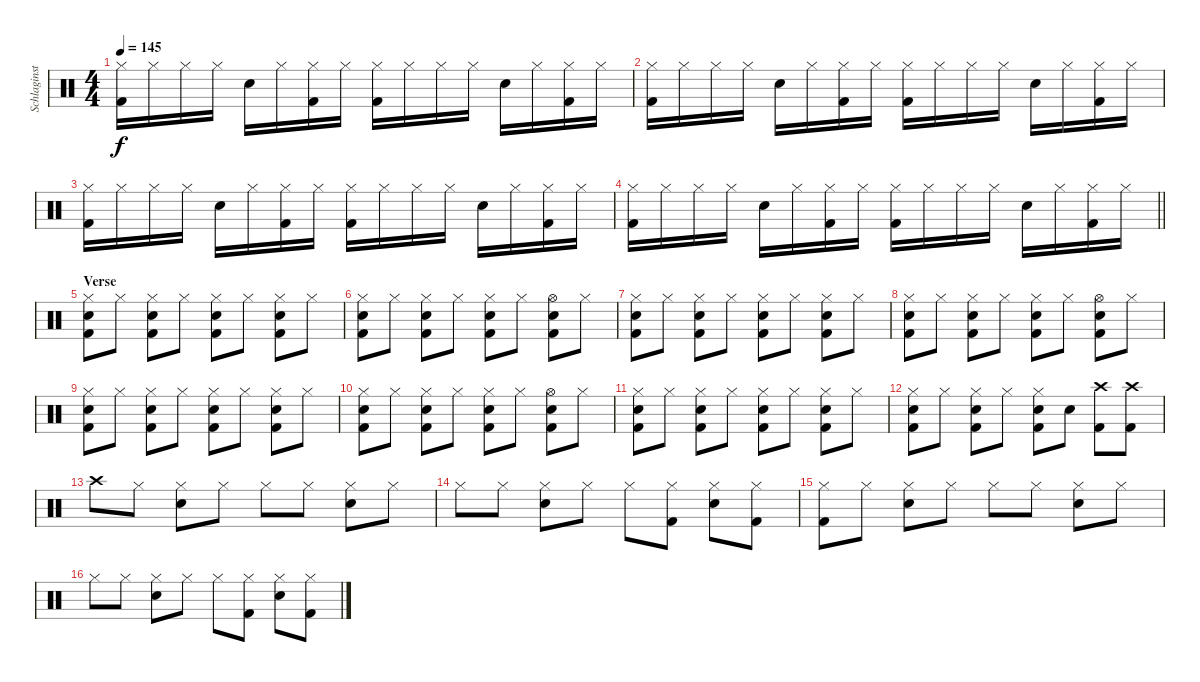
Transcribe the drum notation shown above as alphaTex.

\track ("Schlaginstrumente - Auswahl" "Schlaginst") {instrument percussion}
\staff {score}
\articulation defaults
\ts (4 4)
\tempo 145
\clef neutral
\ks c
("Hi-Hat (closed)" "Kick (hit) 2").16{dy f} "Hi-Hat (closed)".16 "Hi-Hat (closed)".16 "Hi-Hat (closed)".16 "Electric Snare (hit)".16 "Hi-Hat (closed)".16 ("Hi-Hat (closed)" "Kick (hit) 2").16 "Hi-Hat (closed)".16 ("Hi-Hat (closed)" "Kick (hit) 2").16 "Hi-Hat (closed)".16 "Hi-Hat (closed)".16 "Hi-Hat (closed)".16 "Electric Snare (hit)".16 "Hi-Hat (closed)".16 ("Hi-Hat (closed)" "Kick (hit) 2").16 "Hi-Hat (closed)".16 |
("Hi-Hat (closed)" "Kick (hit) 2").16 "Hi-Hat (closed)".16 "Hi-Hat (closed)".16 "Hi-Hat (closed)".16 "Electric Snare (hit)".16 "Hi-Hat (closed)".16 ("Hi-Hat (closed)" "Kick (hit) 2").16 "Hi-Hat (closed)".16 ("Hi-Hat (closed)" "Kick (hit) 2").16 "Hi-Hat (closed)".16 "Hi-Hat (closed)".16 "Hi-Hat (closed)".16 "Electric Snare (hit)".16 "Hi-Hat (closed)".16 ("Hi-Hat (closed)" "Kick (hit) 2").16 "Hi-Hat (closed)".16 |
("Hi-Hat (closed)" "Kick (hit) 2").16 "Hi-Hat (closed)".16 "Hi-Hat (closed)".16 "Hi-Hat (closed)".16 "Electric Snare (hit)".16 "Hi-Hat (closed)".16 ("Hi-Hat (closed)" "Kick (hit) 2").16 "Hi-Hat (closed)".16 ("Hi-Hat (closed)" "Kick (hit) 2").16 "Hi-Hat (closed)".16 "Hi-Hat (closed)".16 "Hi-Hat (closed)".16 "Electric Snare (hit)".16 "Hi-Hat (closed)".16 ("Hi-Hat (closed)" "Kick (hit) 2").16 "Hi-Hat (closed)".16 |
\barLineRight lightlight
("Hi-Hat (closed)" "Kick (hit) 2").16 "Hi-Hat (closed)".16 "Hi-Hat (closed)".16 "Hi-Hat (closed)".16 "Electric Snare (hit)".16 "Hi-Hat (closed)".16 ("Hi-Hat (closed)" "Kick (hit) 2").16 "Hi-Hat (closed)".16 ("Hi-Hat (closed)" "Kick (hit) 2").16 "Hi-Hat (closed)".16 "Hi-Hat (closed)".16 "Hi-Hat (closed)".16 "Electric Snare (hit)".16 "Hi-Hat (closed)".16 ("Hi-Hat (closed)" "Kick (hit) 2").16 "Hi-Hat (closed)".16 |
\section ("" "Verse")
("Hi-Hat (closed)" "Electric Snare (hit)" "Kick (hit) 2").8 "Hi-Hat (closed)".8 ("Hi-Hat (closed)" "Electric Snare (hit)" "Kick (hit) 2").8 "Hi-Hat (closed)".8 ("Hi-Hat (closed)" "Electric Snare (hit)" "Kick (hit) 2").8 "Hi-Hat (closed)".8 ("Hi-Hat (closed)" "Electric Snare (hit)" "Kick (hit) 2").8 "Hi-Hat (closed)".8 |
("Hi-Hat (closed)" "Electric Snare (hit)" "Kick (hit) 2").8 "Hi-Hat (closed)".8 ("Hi-Hat (closed)" "Electric Snare (hit)" "Kick (hit) 2").8 "Hi-Hat (closed)".8 ("Hi-Hat (closed)" "Electric Snare (hit)" "Kick (hit) 2").8 "Hi-Hat (closed)".8 ("Hi-Hat (open)" "Electric Snare (hit)" "Kick (hit) 2").8 "Hi-Hat (closed)".8 |
("Hi-Hat (closed)" "Electric Snare (hit)" "Kick (hit) 2").8 "Hi-Hat (closed)".8 ("Hi-Hat (closed)" "Electric Snare (hit)" "Kick (hit) 2").8 "Hi-Hat (closed)".8 ("Hi-Hat (closed)" "Electric Snare (hit)" "Kick (hit) 2").8 "Hi-Hat (closed)".8 ("Hi-Hat (closed)" "Electric Snare (hit)" "Kick (hit) 2").8 "Hi-Hat (closed)".8 |
("Hi-Hat (closed)" "Electric Snare (hit)" "Kick (hit) 2").8 "Hi-Hat (closed)".8 ("Hi-Hat (closed)" "Electric Snare (hit)" "Kick (hit) 2").8 "Hi-Hat (closed)".8 ("Hi-Hat (closed)" "Electric Snare (hit)" "Kick (hit) 2").8 "Hi-Hat (closed)".8 ("Hi-Hat (open)" "Electric Snare (hit)" "Kick (hit) 2").8 "Hi-Hat (closed)".8 |
("Hi-Hat (closed)" "Electric Snare (hit)" "Kick (hit) 2").8 "Hi-Hat (closed)".8 ("Hi-Hat (closed)" "Electric Snare (hit)" "Kick (hit) 2").8 "Hi-Hat (closed)".8 ("Hi-Hat (closed)" "Electric Snare (hit)" "Kick (hit) 2").8 "Hi-Hat (closed)".8 ("Hi-Hat (closed)" "Electric Snare (hit)" "Kick (hit) 2").8 "Hi-Hat (closed)".8 |
("Hi-Hat (closed)" "Electric Snare (hit)" "Kick (hit) 2").8 "Hi-Hat (closed)".8 ("Hi-Hat (closed)" "Electric Snare (hit)" "Kick (hit) 2").8 "Hi-Hat (closed)".8 ("Hi-Hat (closed)" "Electric Snare (hit)" "Kick (hit) 2").8 "Hi-Hat (closed)".8 ("Hi-Hat (open)" "Electric Snare (hit)" "Kick (hit) 2").8 "Hi-Hat (closed)".8 |
("Hi-Hat (closed)" "Electric Snare (hit)" "Kick (hit) 2").8 "Hi-Hat (closed)".8 ("Hi-Hat (closed)" "Electric Snare (hit)" "Kick (hit) 2").8 "Hi-Hat (closed)".8 ("Hi-Hat (closed)" "Electric Snare (hit)" "Kick (hit) 2").8 "Hi-Hat (closed)".8 ("Hi-Hat (closed)" "Electric Snare (hit)" "Kick (hit) 2").8 "Hi-Hat (closed)".8 |
("Hi-Hat (closed)" "Electric Snare (hit)" "Kick (hit) 2").8 "Hi-Hat (closed)".8 ("Hi-Hat (closed)" "Electric Snare (hit)" "Kick (hit) 2").8 "Hi-Hat (closed)".8 ("Hi-Hat (closed)" "Electric Snare (hit)" "Kick (hit) 2").8 "Electric Snare (hit)".8 ("Crash high (hit)" "Kick (hit) 2").8 ("Crash high (hit)" "Kick (hit) 2").8 |
"Crash high (hit)".8 "Hi-Hat (closed)".8 ("Hi-Hat (closed)" "Electric Snare (hit)").8 "Hi-Hat (closed)".8 "Hi-Hat (closed)".8 "Hi-Hat (closed)".8 ("Hi-Hat (closed)" "Electric Snare (hit)").8 "Hi-Hat (closed)".8 |
"Hi-Hat (closed)".8 "Hi-Hat (closed)".8 ("Hi-Hat (closed)" "Electric Snare (hit)").8 "Hi-Hat (closed)".8 "Hi-Hat (closed)".8 ("Hi-Hat (closed)" "Kick (hit) 2").8 ("Hi-Hat (closed)" "Electric Snare (hit)").8 ("Hi-Hat (closed)" "Kick (hit) 2").8 |
("Hi-Hat (closed)" "Kick (hit) 2").8 "Hi-Hat (closed)".8 ("Hi-Hat (closed)" "Electric Snare (hit)").8 "Hi-Hat (closed)".8 "Hi-Hat (closed)".8 "Hi-Hat (closed)".8 ("Hi-Hat (closed)" "Electric Snare (hit)").8 "Hi-Hat (closed)".8 |
"Hi-Hat (closed)".8 "Hi-Hat (closed)".8 ("Hi-Hat (closed)" "Electric Snare (hit)").8 "Hi-Hat (closed)".8 "Hi-Hat (closed)".8 ("Hi-Hat (closed)" "Kick (hit) 2").8 ("Hi-Hat (closed)" "Electric Snare (hit)").8 ("Hi-Hat (closed)" "Kick (hit) 2").8
